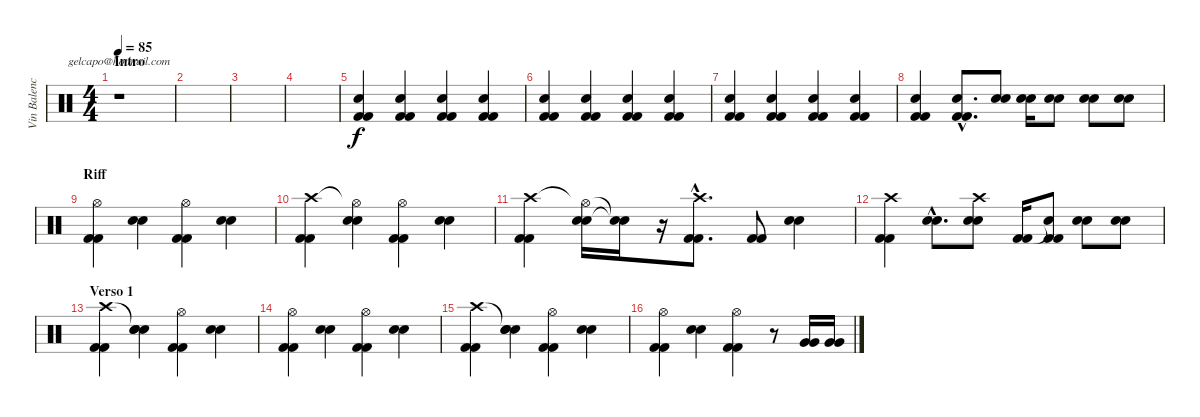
\track ("Vin Balencia (bateria)" "Vin Balenc") {instrument percussion}
\staff {score}
\articulation defaults
\chord ("gelcapo@hotmail.com") {firstfret 0}
\ts (4 4)
\section ("" "Intro")
\tempo 85
\clef neutral
\ks c
r.1{ch "gelcapo@hotmail.com" dy f} |
|
|
|
("Kick (hit) 2" "Kick (hit) 2" "Snare (hit) 2").4 ("Kick (hit) 2" "Kick (hit) 2" "Snare (hit) 2").4 ("Kick (hit) 2" "Kick (hit) 2" "Snare (hit) 2").4 ("Kick (hit) 2" "Kick (hit) 2" "Snare (hit) 2").4 |
("Kick (hit) 2" "Kick (hit) 2" "Snare (hit) 2").4 ("Kick (hit) 2" "Kick (hit) 2" "Snare (hit) 2").4 ("Kick (hit) 2" "Kick (hit) 2" "Snare (hit) 2").4 ("Kick (hit) 2" "Kick (hit) 2" "Snare (hit) 2").4 |
("Kick (hit) 2" "Kick (hit) 2" "Snare (hit) 2").4 ("Kick (hit) 2" "Kick (hit) 2" "Snare (hit) 2").4 ("Kick (hit) 2" "Kick (hit) 2" "Snare (hit) 2").4 ("Kick (hit) 2" "Kick (hit) 2" "Snare (hit) 2").4 |
("Kick (hit) 2" "Kick (hit) 2" "Snare (hit) 2").4 ("Kick (hit) 2"{hac} "Kick (hit) 2"{hac} "Snare (hit) 2"{hac}).8{d} ("Electric Snare (hit)" "Snare (hit) 2").8 ("Electric Snare (hit)" "Snare (hit) 2").16 ("Electric Snare (hit)" "Snare (hit) 2").8 ("Electric Snare (hit)" "Snare (hit) 2").8 ("Electric Snare (hit)" "Snare (hit) 2").8 |
\section ("" "Riff")
("Hi-Hat (open)" "Kick (hit) 2" "Kick (hit) 2").4 ("Snare (hit) 2" "Snare (hit) 2").4 ("Hi-Hat (open)" "Kick (hit) 2" "Kick (hit) 2").4 ("Snare (hit) 2" "Snare (hit) 2").4 |
("Crash high (hit)" "Kick (hit) 2" "Kick (hit) 2").4 ("Hi-Hat (open)"{t} "Snare (hit) 2" "Snare (hit) 2").4 ("Hi-Hat (open)" "Kick (hit) 2" "Kick (hit) 2").4 ("Snare (hit) 2" "Snare (hit) 2").4 |
("Crash high (hit)" "Kick (hit) 2" "Kick (hit) 2").4 ("Hi-Hat (open)"{t} "Snare (hit) 2" "Snare (hit) 2").16 ("Snare (hit)"{t} "Snare (hit)"{t}).16 r.16 ("Crash high (hit)"{hac} "Kick (hit) 2"{hac} "Kick (hit) 2"{hac}).8{d} ("Kick (hit) 2" "Kick (hit) 2").8 ("Snare (hit) 2" "Snare (hit) 2").4 |
("Crash high (hit)" "Kick (hit) 2" "Kick (hit) 2").4 ("Snare (hit) 2"{hac} "Snare (hit) 2"{hac}).8{d} ("Crash high (hit)" "Electric Snare (hit)" "Snare (hit) 2").8 ("Kick (hit) 2" "Kick (hit) 2").16 ("Snare (hit)"{t} "Kick (hit) 2" "Kick (hit) 2").8 ("Electric Snare (hit)" "Snare (hit) 2").8 ("Electric Snare (hit)" "Snare (hit) 2").8 |
\section ("" "Verso 1")
("Crash high (hit)" "Kick (hit) 2" "Kick (hit) 2").4 ("Snare (hit)"{t} "Snare (hit) 2" "Snare (hit) 2").4 ("Hi-Hat (open)" "Kick (hit) 2" "Kick (hit) 2").4 ("Snare (hit) 2" "Snare (hit) 2").4 |
("Hi-Hat (open)" "Kick (hit) 2" "Kick (hit) 2").4 ("Snare (hit) 2" "Snare (hit) 2").4 ("Hi-Hat (open)" "Kick (hit) 2" "Kick (hit) 2").4 ("Snare (hit) 2" "Snare (hit) 2").4 |
("Crash high (hit)" "Kick (hit) 2" "Kick (hit) 2").4 ("Snare (hit)"{t} "Snare (hit) 2" "Snare (hit) 2").4 ("Hi-Hat (open)" "Kick (hit) 2" "Kick (hit) 2").4 ("Snare (hit) 2" "Snare (hit) 2").4 |
("Hi-Hat (open)" "Kick (hit) 2" "Kick (hit) 2").4 ("Snare (hit) 2" "Snare (hit) 2").4 ("Hi-Hat (open)" "Kick (hit) 2" "Kick (hit) 2").4 r.8 ("Very Low Tom (hit)" "Very Low Tom (hit)").16 ("Very Low Tom (hit)" "Very Low Tom (hit)").16
